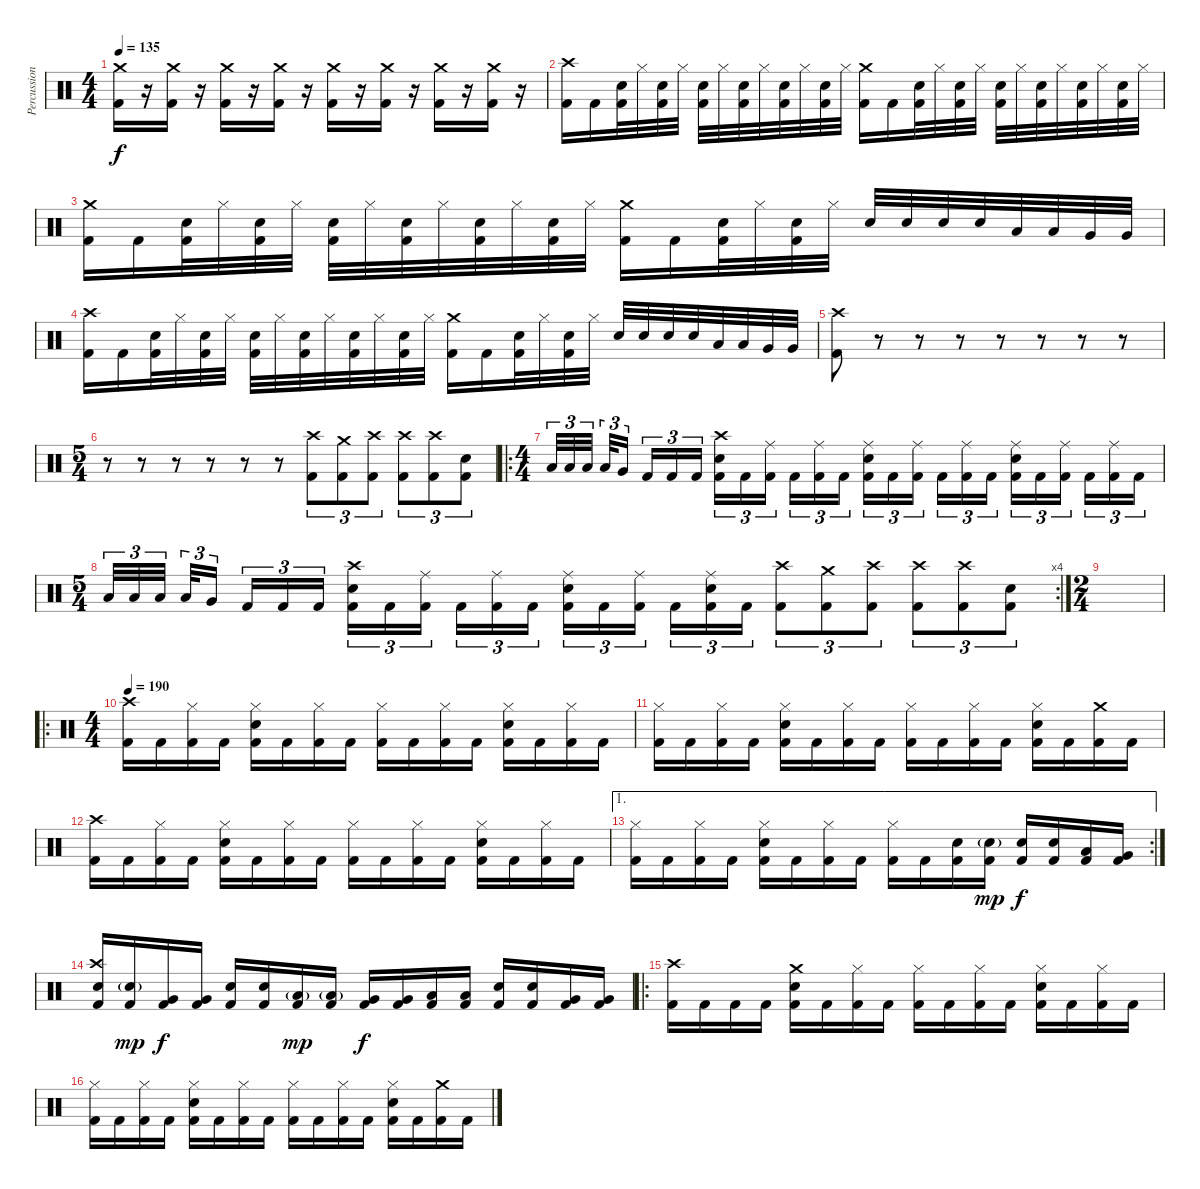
\track ("Percussion" "Percussion") {instrument percussion}
\staff {score}
\articulation defaults
\ts (4 4)
\tempo 135
\clef neutral
\ks c
("Crash medium (hit)" "Kick (hit) 2").16{dy f volume 13} r.16{volume 0} ("Crash medium (hit)" "Kick (hit) 2").16{volume 13} r.16{volume 0} ("Crash medium (hit)" "Kick (hit) 2").16{volume 13} r.16{volume 0} ("Crash medium (hit)" "Kick (hit) 2").16{volume 13} r.16{volume 0} ("Crash medium (hit)" "Kick (hit) 2").16{volume 13} r.16{volume 0} ("Crash medium (hit)" "Kick (hit) 2").16{volume 13} r.16{volume 0} ("Crash medium (hit)" "Kick (hit) 2").16{volume 13} r.16{volume 0} ("Crash medium (hit)" "Kick (hit) 2").16{volume 13} r.16{volume 0} |
("Crash high (hit)" "Kick (hit) 2").16{volume 13} "Kick (hit) 2".16 ("Snare (hit) 2" "Kick (hit) 2").32 "Hi-Hat (closed)".32 ("Snare (hit) 2" "Kick (hit) 2").32 "Hi-Hat (closed)".32 ("Snare (hit) 2" "Kick (hit) 2").32 "Hi-Hat (closed)".32 ("Snare (hit) 2" "Kick (hit) 2").32 "Hi-Hat (closed)".32 ("Snare (hit) 2" "Kick (hit) 2").32 "Hi-Hat (closed)".32 ("Snare (hit) 2" "Kick (hit) 2").32 "Hi-Hat (closed)".32 ("Crash medium (hit)" "Kick (hit) 2").16 "Kick (hit) 2".16 ("Snare (hit) 2" "Kick (hit) 2").32 "Hi-Hat (closed)".32 ("Snare (hit) 2" "Kick (hit) 2").32 "Hi-Hat (closed)".32 ("Snare (hit) 2" "Kick (hit) 2").32 "Hi-Hat (closed)".32 ("Snare (hit) 2" "Kick (hit) 2").32 "Hi-Hat (closed)".32 ("Snare (hit) 2" "Kick (hit) 2").32 "Hi-Hat (closed)".32 ("Snare (hit) 2" "Kick (hit) 2").32 "Hi-Hat (closed)".32 |
("Crash medium (hit)" "Kick (hit) 2").16 "Kick (hit) 2".16 ("Snare (hit) 2" "Kick (hit) 2").32 "Hi-Hat (closed)".32 ("Snare (hit) 2" "Kick (hit) 2").32 "Hi-Hat (closed)".32 ("Snare (hit) 2" "Kick (hit) 2").32 "Hi-Hat (closed)".32 ("Snare (hit) 2" "Kick (hit) 2").32 "Hi-Hat (closed)".32 ("Snare (hit) 2" "Kick (hit) 2").32 "Hi-Hat (closed)".32 ("Snare (hit) 2" "Kick (hit) 2").32 "Hi-Hat (closed)".32 ("Crash medium (hit)" "Kick (hit) 2").16 "Kick (hit) 2".16 ("Snare (hit) 2" "Kick (hit) 2").32 "Hi-Hat (closed)".32 ("Snare (hit) 2" "Kick (hit) 2").32 "Hi-Hat (closed)".32 "Snare (hit) 2".32 "Snare (hit) 2".32 "Snare (hit) 2".32 "Snare (hit) 2".32 "Low Tom (hit)".32 "Low Tom (hit)".32 "Very Low Tom (hit)".32 "Very Low Tom (hit)".32 |
("Crash high (hit)" "Kick (hit) 2").16 "Kick (hit) 2".16 ("Snare (hit) 2" "Kick (hit) 2").32 "Hi-Hat (closed)".32 ("Snare (hit) 2" "Kick (hit) 2").32 "Hi-Hat (closed)".32 ("Snare (hit) 2" "Kick (hit) 2").32 "Hi-Hat (closed)".32 ("Snare (hit) 2" "Kick (hit) 2").32 "Hi-Hat (closed)".32 ("Snare (hit) 2" "Kick (hit) 2").32 "Hi-Hat (closed)".32 ("Snare (hit) 2" "Kick (hit) 2").32 "Hi-Hat (closed)".32 ("Crash medium (hit)" "Kick (hit) 2").16 "Kick (hit) 2".16 ("Snare (hit) 2" "Kick (hit) 2").32 "Hi-Hat (closed)".32 ("Snare (hit) 2" "Kick (hit) 2").32 "Hi-Hat (closed)".32 "Snare (hit) 2".32 "Snare (hit) 2".32 "Snare (hit) 2".32 "Snare (hit) 2".32 "Low Tom (hit)".32 "Low Tom (hit)".32 "Very Low Tom (hit)".32 "Very Low Tom (hit)".32 |
("Crash high (hit)" "Kick (hit) 2").8 r.8{volume 0} r.8 r.8 r.8 r.8 r.8 r.8 |
\ts (5 4)
r.8 r.8 r.8 r.8 r.8 r.8 ("Crash high (hit)" "Kick (hit) 2").8{tu (3 2) volume 13} ("Crash medium (hit)" "Kick (hit) 2").8{tu (3 2)} ("Crash high (hit)" "Kick (hit) 2").8{tu (3 2)} ("Crash high (hit)" "Kick (hit) 2").8{tu (3 2)} ("Crash high (hit)" "Kick (hit) 2").8{tu (3 2)} ("Snare (hit) 2" "Kick (hit) 2").8{tu (3 2)} |
\ro
\ts (4 4)
"Low Tom (hit)".32{tu (3 2)} "Low Tom (hit)".32{tu (3 2)} "Low Tom (hit)".32{tu (3 2)} "Low Tom (hit)".32{tu (3 2)} "Very Low Tom (hit)".16{tu (3 2)} "Kick (hit) 2".16{tu (3 2)} "Kick (hit) 2".16{tu (3 2)} "Kick (hit) 2".16{tu (3 2)} ("Crash high (hit)" "Snare (hit) 2" "Kick (hit) 2").16{tu (3 2)} "Kick (hit) 2".16{tu (3 2)} ("Ride (middle)" "Kick (hit) 2").16{tu (3 2)} "Kick (hit) 2".16{tu (3 2)} ("Ride (middle)" "Kick (hit) 2").16{tu (3 2)} "Kick (hit) 2".16{tu (3 2)} ("Ride (middle)" "Snare (hit) 2" "Kick (hit) 2").16{tu (3 2)} "Kick (hit) 2".16{tu (3 2)} ("Ride (middle)" "Kick (hit) 2").16{tu (3 2)} "Kick (hit) 2".16{tu (3 2)} ("Ride (middle)" "Kick (hit) 2").16{tu (3 2)} "Kick (hit) 2".16{tu (3 2)} ("Ride (middle)" "Snare (hit) 2" "Kick (hit) 2").16{tu (3 2)} "Kick (hit) 2".16{tu (3 2)} ("Ride (middle)" "Kick (hit) 2").16{tu (3 2)} "Kick (hit) 2".16{tu (3 2)} ("Ride (middle)" "Kick (hit) 2").16{tu (3 2)} "Kick (hit) 2".16{tu (3 2)} |
\rc 4
\ts (5 4)
"Low Tom (hit)".32{tu (3 2)} "Low Tom (hit)".32{tu (3 2)} "Low Tom (hit)".32{tu (3 2)} "Low Tom (hit)".32{tu (3 2)} "Very Low Tom (hit)".16{tu (3 2)} "Kick (hit) 2".16{tu (3 2)} "Kick (hit) 2".16{tu (3 2)} "Kick (hit) 2".16{tu (3 2)} ("Crash high (hit)" "Snare (hit) 2" "Kick (hit) 2").16{tu (3 2)} "Kick (hit) 2".16{tu (3 2)} ("Ride (middle)" "Kick (hit) 2").16{tu (3 2)} "Kick (hit) 2".16{tu (3 2)} ("Ride (middle)" "Kick (hit) 2").16{tu (3 2)} "Kick (hit) 2".16{tu (3 2)} ("Ride (middle)" "Snare (hit) 2" "Kick (hit) 2").16{tu (3 2)} "Kick (hit) 2".16{tu (3 2)} ("Ride (middle)" "Kick (hit) 2").16{tu (3 2)} "Kick (hit) 2".16{tu (3 2)} ("Ride (middle)" "Snare (hit) 2" "Kick (hit) 2").16{tu (3 2)} "Kick (hit) 2".16{tu (3 2)} ("Crash high (hit)" "Kick (hit) 2").8{tu (3 2)} ("Crash medium (hit)" "Kick (hit) 2").8{tu (3 2)} ("Crash high (hit)" "Kick (hit) 2").8{tu (3 2)} ("Crash high (hit)" "Kick (hit) 2").8{tu (3 2)} ("Crash high (hit)" "Kick (hit) 2").8{tu (3 2)} ("Snare (hit) 2" "Kick (hit) 2").8{tu (3 2)} |
\ts (2 4)
|
\ro
\ts (4 4)
\tempo 190
("Crash high (hit)" "Kick (hit) 2").16 "Kick (hit) 2".16 ("Hi-Hat (closed)" "Kick (hit) 2").16 "Kick (hit) 2".16 ("Hi-Hat (closed)" "Snare (hit) 2" "Kick (hit) 2").16 "Kick (hit) 2".16 ("Hi-Hat (closed)" "Kick (hit) 2").16 "Kick (hit) 2".16 ("Hi-Hat (closed)" "Kick (hit) 2").16 "Kick (hit) 2".16 ("Hi-Hat (closed)" "Kick (hit) 2").16 "Kick (hit) 2".16 ("Hi-Hat (closed)" "Snare (hit) 2" "Kick (hit) 2").16 "Kick (hit) 2".16 ("Hi-Hat (closed)" "Kick (hit) 2").16 "Kick (hit) 2".16 |
("Hi-Hat (closed)" "Kick (hit) 2").16 "Kick (hit) 2".16 ("Hi-Hat (closed)" "Kick (hit) 2").16 "Kick (hit) 2".16 ("Hi-Hat (closed)" "Snare (hit) 2" "Kick (hit) 2").16 "Kick (hit) 2".16 ("Hi-Hat (closed)" "Kick (hit) 2").16 "Kick (hit) 2".16 ("Hi-Hat (closed)" "Kick (hit) 2").16 "Kick (hit) 2".16 ("Hi-Hat (closed)" "Kick (hit) 2").16 "Kick (hit) 2".16 ("Hi-Hat (closed)" "Snare (hit) 2" "Kick (hit) 2").16 "Kick (hit) 2".16 ("Crash medium (hit)" "Kick (hit) 2").16 "Kick (hit) 2".16 |
("Crash high (hit)" "Kick (hit) 2").16 "Kick (hit) 2".16 ("Hi-Hat (closed)" "Kick (hit) 2").16 "Kick (hit) 2".16 ("Hi-Hat (closed)" "Snare (hit) 2" "Kick (hit) 2").16 "Kick (hit) 2".16 ("Hi-Hat (closed)" "Kick (hit) 2").16 "Kick (hit) 2".16 ("Hi-Hat (closed)" "Kick (hit) 2").16 "Kick (hit) 2".16 ("Hi-Hat (closed)" "Kick (hit) 2").16 "Kick (hit) 2".16 ("Hi-Hat (closed)" "Snare (hit) 2" "Kick (hit) 2").16 "Kick (hit) 2".16 ("Hi-Hat (closed)" "Kick (hit) 2").16 "Kick (hit) 2".16 |
\ae 1
\rc 2
("Hi-Hat (closed)" "Kick (hit) 2").16 "Kick (hit) 2".16 ("Hi-Hat (closed)" "Kick (hit) 2").16 "Kick (hit) 2".16 ("Hi-Hat (closed)" "Snare (hit) 2" "Kick (hit) 2").16 "Kick (hit) 2".16 ("Hi-Hat (closed)" "Kick (hit) 2").16 "Kick (hit) 2".16 ("Hi-Hat (closed)" "Kick (hit) 2").16 "Kick (hit) 2".16 ("Snare (hit) 2" "Kick (hit) 2").16 ("Snare (hit) 2"{g} "Kick (hit) 2").16{dy mp} ("Snare (hit) 2" "Kick (hit) 2").16{dy f} ("Snare (hit) 2" "Kick (hit) 2").16 ("Low Tom (hit)" "Kick (hit) 2").16 ("Very Low Tom (hit)" "Kick (hit) 2").16 |
("Crash high (hit)" "Snare (hit) 2" "Kick (hit) 2").16 ("Snare (hit) 2"{g} "Kick (hit) 2").16{dy mp} ("Very Low Tom (hit)" "Kick (hit) 2").16{dy f} ("Very Low Tom (hit)" "Kick (hit) 2").16 ("Snare (hit) 2" "Kick (hit) 2").16 ("Snare (hit) 2" "Kick (hit) 2").16 ("Low Tom (hit)"{g} "Kick (hit) 2").16{dy mp} ("Low Tom (hit)"{g} "Kick (hit) 2").16 ("Very Low Tom (hit)" "Kick (hit) 2").16{dy f} ("Very Low Tom (hit)" "Kick (hit) 2").16 ("Low Floor Tom (hit)" "Kick (hit) 2").16 ("Low Floor Tom (hit)" "Kick (hit) 2").16 ("Snare (hit) 2" "Kick (hit) 2").16 ("Snare (hit) 2" "Kick (hit) 2").16 ("Very Low Tom (hit)" "Kick (hit) 2").16 ("Very Low Tom (hit)" "Kick (hit) 2").16 |
\ro
("Crash high (hit)" "Kick (hit) 2").16 "Kick (hit) 2".16 "Kick (hit) 2".16 "Kick (hit) 2".16 ("Crash medium (hit)" "Snare (hit) 2" "Kick (hit) 2").16 "Kick (hit) 2".16 ("Hi-Hat (closed)" "Kick (hit) 2").16 "Kick (hit) 2".16 ("Hi-Hat (closed)" "Kick (hit) 2").16 "Kick (hit) 2".16 ("Hi-Hat (closed)" "Kick (hit) 2").16 "Kick (hit) 2".16 ("Hi-Hat (closed)" "Snare (hit) 2" "Kick (hit) 2").16 "Kick (hit) 2".16 ("Hi-Hat (closed)" "Kick (hit) 2").16 "Kick (hit) 2".16 |
("Hi-Hat (closed)" "Kick (hit) 2").16 "Kick (hit) 2".16 ("Hi-Hat (closed)" "Kick (hit) 2").16 "Kick (hit) 2".16 ("Hi-Hat (closed)" "Snare (hit) 2" "Kick (hit) 2").16 "Kick (hit) 2".16 ("Hi-Hat (closed)" "Kick (hit) 2").16 "Kick (hit) 2".16 ("Hi-Hat (closed)" "Kick (hit) 2").16 "Kick (hit) 2".16 ("Hi-Hat (closed)" "Kick (hit) 2").16 "Kick (hit) 2".16 ("Hi-Hat (closed)" "Snare (hit) 2" "Kick (hit) 2").16 "Kick (hit) 2".16 ("Crash medium (hit)" "Kick (hit) 2").16 "Kick (hit) 2".16
